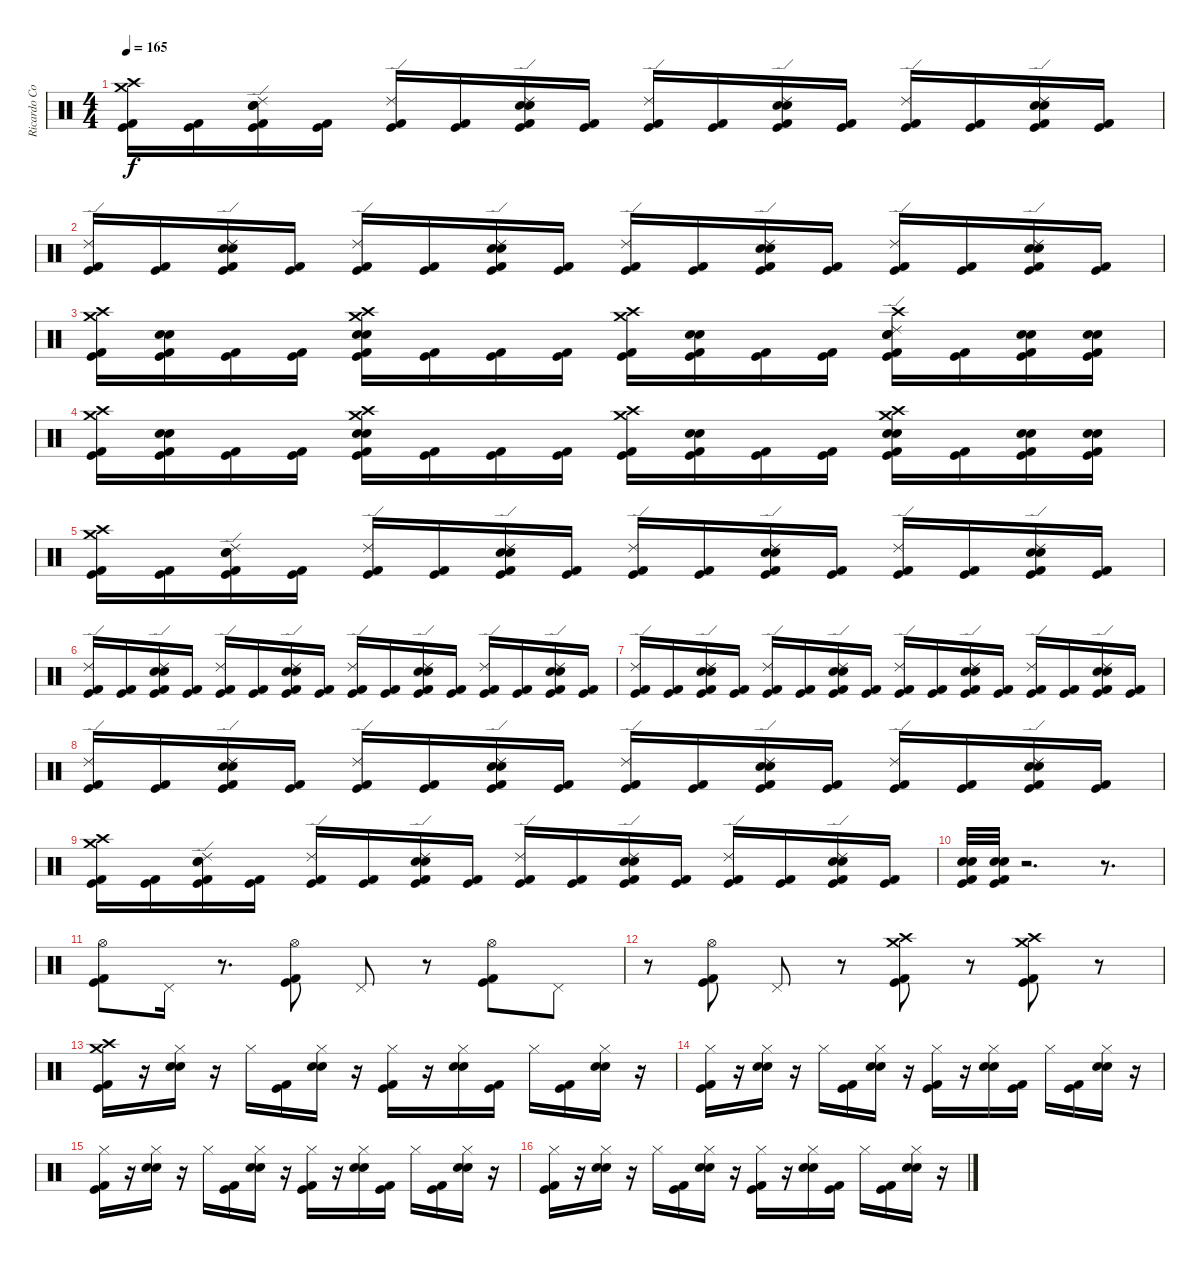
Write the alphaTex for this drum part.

\track ("Ricardo Confessori" "Ricardo Co") {instrument percussion}
\staff {score}
\articulation defaults
\ts (4 4)
\tempo 165
\clef neutral
\ks c
("Crash high (hit)" "Crash medium (hit)" "Kick (hit) 2" "Kick (hit)").16{dy f} ("Kick (hit) 2" "Kick (hit)").16 ("Ride (edge) 2" "Snare (hit) 2" "Electric Snare (hit)" "Kick (hit) 2" "Kick (hit)").16 ("Kick (hit) 2" "Kick (hit)").16 ("Ride (edge) 2" "Kick (hit) 2" "Kick (hit)").16 ("Kick (hit) 2" "Kick (hit)").16 ("Ride (edge) 2" "Electric Snare (hit)" "Snare (hit) 2" "Kick (hit) 2" "Kick (hit)").16 ("Kick (hit) 2" "Kick (hit)").16 ("Ride (edge) 2" "Kick (hit) 2" "Kick (hit)").16 ("Kick (hit) 2" "Kick (hit)").16 ("Ride (edge) 2" "Snare (hit) 2" "Electric Snare (hit)" "Kick (hit) 2" "Kick (hit)").16 ("Kick (hit) 2" "Kick (hit)").16 ("Ride (edge) 2" "Kick (hit) 2" "Kick (hit)").16 ("Kick (hit) 2" "Kick (hit)").16 ("Ride (edge) 2" "Electric Snare (hit)" "Snare (hit) 2" "Kick (hit) 2" "Kick (hit)").16 ("Kick (hit) 2" "Kick (hit)").16 |
("Ride (edge) 2" "Kick (hit) 2" "Kick (hit)").16 ("Kick (hit) 2" "Kick (hit)").16 ("Ride (edge) 2" "Snare (hit) 2" "Electric Snare (hit)" "Kick (hit) 2" "Kick (hit)").16 ("Kick (hit) 2" "Kick (hit)").16 ("Ride (edge) 2" "Kick (hit) 2" "Kick (hit)").16 ("Kick (hit) 2" "Kick (hit)").16 ("Ride (edge) 2" "Electric Snare (hit)" "Snare (hit) 2" "Kick (hit) 2" "Kick (hit)").16 ("Kick (hit) 2" "Kick (hit)").16 ("Ride (edge) 2" "Kick (hit) 2" "Kick (hit)").16 ("Kick (hit) 2" "Kick (hit)").16 ("Ride (edge) 2" "Snare (hit) 2" "Electric Snare (hit)" "Kick (hit) 2" "Kick (hit)").16 ("Kick (hit) 2" "Kick (hit)").16 ("Ride (edge) 2" "Kick (hit) 2" "Kick (hit)").16 ("Kick (hit) 2" "Kick (hit)").16 ("Ride (edge) 2" "Electric Snare (hit)" "Snare (hit) 2" "Kick (hit) 2" "Kick (hit)").16 ("Kick (hit) 2" "Kick (hit)").16 |
("Crash high (hit)" "Crash medium (hit)" "Kick (hit) 2" "Kick (hit)").16 ("Electric Snare (hit)" "Snare (hit) 2" "Kick (hit) 2" "Kick (hit)").16 ("Kick (hit) 2" "Kick (hit)").16 ("Kick (hit) 2" "Kick (hit)").16 ("Electric Snare (hit)" "Snare (hit) 2" "Crash high (hit)" "Crash medium (hit)" "Kick (hit) 2" "Kick (hit)").16 ("Kick (hit) 2" "Kick (hit)").16 ("Kick (hit) 2" "Kick (hit)").16 ("Kick (hit) 2" "Kick (hit)").16 ("Crash high (hit)" "Crash medium (hit)" "Kick (hit) 2" "Kick (hit)").16 ("Electric Snare (hit)" "Snare (hit) 2" "Kick (hit) 2" "Kick (hit)").16 ("Kick (hit) 2" "Kick (hit)").16 ("Kick (hit) 2" "Kick (hit)").16 ("Electric Snare (hit)" "Crash high (hit)" "Snare (hit) 2" "Ride (edge) 2" "Kick (hit) 2" "Kick (hit)").16 ("Kick (hit) 2" "Kick (hit)").16 ("Electric Snare (hit)" "Snare (hit) 2" "Kick (hit) 2" "Kick (hit)").16 ("Electric Snare (hit)" "Snare (hit) 2" "Kick (hit) 2" "Kick (hit)").16 |
("Crash high (hit)" "Crash medium (hit)" "Kick (hit) 2" "Kick (hit)").16 ("Electric Snare (hit)" "Snare (hit) 2" "Kick (hit) 2" "Kick (hit)").16 ("Kick (hit) 2" "Kick (hit)").16 ("Kick (hit) 2" "Kick (hit)").16 ("Crash high (hit)" "Electric Snare (hit)" "Snare (hit) 2" "Crash medium (hit)" "Kick (hit) 2" "Kick (hit)").16 ("Kick (hit) 2" "Kick (hit)").16 ("Kick (hit) 2" "Kick (hit)").16 ("Kick (hit) 2" "Kick (hit)").16 ("Crash high (hit)" "Crash medium (hit)" "Kick (hit) 2" "Kick (hit)").16 ("Electric Snare (hit)" "Snare (hit) 2" "Kick (hit) 2" "Kick (hit)").16 ("Kick (hit) 2" "Kick (hit)").16 ("Kick (hit) 2" "Kick (hit)").16 ("Electric Snare (hit)" "Snare (hit) 2" "Crash high (hit)" "Crash medium (hit)" "Kick (hit) 2" "Kick (hit)").16 ("Kick (hit) 2" "Kick (hit)").16 ("Electric Snare (hit)" "Snare (hit) 2" "Kick (hit) 2" "Kick (hit)").16 ("Electric Snare (hit)" "Snare (hit) 2" "Kick (hit) 2" "Kick (hit)").16 |
("Crash high (hit)" "Crash medium (hit)" "Kick (hit) 2" "Kick (hit)").16 ("Kick (hit) 2" "Kick (hit)").16 ("Ride (edge) 2" "Snare (hit) 2" "Electric Snare (hit)" "Kick (hit) 2" "Kick (hit)").16 ("Kick (hit) 2" "Kick (hit)").16 ("Ride (edge) 2" "Kick (hit) 2" "Kick (hit)").16 ("Kick (hit) 2" "Kick (hit)").16 ("Ride (edge) 2" "Electric Snare (hit)" "Snare (hit) 2" "Kick (hit) 2" "Kick (hit)").16 ("Kick (hit) 2" "Kick (hit)").16 ("Ride (edge) 2" "Kick (hit) 2" "Kick (hit)").16 ("Kick (hit) 2" "Kick (hit)").16 ("Ride (edge) 2" "Snare (hit) 2" "Electric Snare (hit)" "Kick (hit) 2" "Kick (hit)").16 ("Kick (hit) 2" "Kick (hit)").16 ("Ride (edge) 2" "Kick (hit) 2" "Kick (hit)").16 ("Kick (hit) 2" "Kick (hit)").16 ("Ride (edge) 2" "Electric Snare (hit)" "Snare (hit) 2" "Kick (hit) 2" "Kick (hit)").16 ("Kick (hit) 2" "Kick (hit)").16 |
("Ride (edge) 2" "Kick (hit) 2" "Kick (hit)").16 ("Kick (hit) 2" "Kick (hit)").16 ("Ride (edge) 2" "Snare (hit) 2" "Electric Snare (hit)" "Kick (hit) 2" "Kick (hit)").16 ("Kick (hit) 2" "Kick (hit)").16 ("Ride (edge) 2" "Kick (hit) 2" "Kick (hit)").16 ("Kick (hit) 2" "Kick (hit)").16 ("Ride (edge) 2" "Electric Snare (hit)" "Snare (hit) 2" "Kick (hit) 2" "Kick (hit)").16 ("Kick (hit) 2" "Kick (hit)").16 ("Ride (edge) 2" "Kick (hit) 2" "Kick (hit)").16 ("Kick (hit) 2" "Kick (hit)").16 ("Ride (edge) 2" "Snare (hit) 2" "Electric Snare (hit)" "Kick (hit) 2" "Kick (hit)").16 ("Kick (hit) 2" "Kick (hit)").16 ("Ride (edge) 2" "Kick (hit) 2" "Kick (hit)").16 ("Kick (hit) 2" "Kick (hit)").16 ("Ride (edge) 2" "Electric Snare (hit)" "Snare (hit) 2" "Kick (hit) 2" "Kick (hit)").16 ("Kick (hit) 2" "Kick (hit)").16 |
("Ride (edge) 2" "Kick (hit) 2" "Kick (hit)").16 ("Kick (hit) 2" "Kick (hit)").16 ("Ride (edge) 2" "Snare (hit) 2" "Electric Snare (hit)" "Kick (hit) 2" "Kick (hit)").16 ("Kick (hit) 2" "Kick (hit)").16 ("Ride (edge) 2" "Kick (hit) 2" "Kick (hit)").16 ("Kick (hit) 2" "Kick (hit)").16 ("Ride (edge) 2" "Electric Snare (hit)" "Snare (hit) 2" "Kick (hit) 2" "Kick (hit)").16 ("Kick (hit) 2" "Kick (hit)").16 ("Ride (edge) 2" "Kick (hit) 2" "Kick (hit)").16 ("Kick (hit) 2" "Kick (hit)").16 ("Ride (edge) 2" "Snare (hit) 2" "Electric Snare (hit)" "Kick (hit) 2" "Kick (hit)").16 ("Kick (hit) 2" "Kick (hit)").16 ("Ride (edge) 2" "Kick (hit) 2" "Kick (hit)").16 ("Kick (hit) 2" "Kick (hit)").16 ("Ride (edge) 2" "Electric Snare (hit)" "Snare (hit) 2" "Kick (hit) 2" "Kick (hit)").16 ("Kick (hit) 2" "Kick (hit)").16 |
("Ride (edge) 2" "Kick (hit) 2" "Kick (hit)").16 ("Kick (hit) 2" "Kick (hit)").16 ("Ride (edge) 2" "Snare (hit) 2" "Electric Snare (hit)" "Kick (hit) 2" "Kick (hit)").16 ("Kick (hit) 2" "Kick (hit)").16 ("Ride (edge) 2" "Kick (hit) 2" "Kick (hit)").16 ("Kick (hit) 2" "Kick (hit)").16 ("Ride (edge) 2" "Electric Snare (hit)" "Snare (hit) 2" "Kick (hit) 2" "Kick (hit)").16 ("Kick (hit) 2" "Kick (hit)").16 ("Ride (edge) 2" "Kick (hit) 2" "Kick (hit)").16 ("Kick (hit) 2" "Kick (hit)").16 ("Ride (edge) 2" "Snare (hit) 2" "Electric Snare (hit)" "Kick (hit) 2" "Kick (hit)").16 ("Kick (hit) 2" "Kick (hit)").16 ("Ride (edge) 2" "Kick (hit) 2" "Kick (hit)").16 ("Kick (hit) 2" "Kick (hit)").16 ("Ride (edge) 2" "Electric Snare (hit)" "Snare (hit) 2" "Kick (hit) 2" "Kick (hit)").16 ("Kick (hit) 2" "Kick (hit)").16 |
("Crash high (hit)" "Crash medium (hit)" "Kick (hit) 2" "Kick (hit)").16 ("Kick (hit) 2" "Kick (hit)").16 ("Ride (edge) 2" "Snare (hit) 2" "Electric Snare (hit)" "Kick (hit) 2" "Kick (hit)").16 ("Kick (hit) 2" "Kick (hit)").16 ("Ride (edge) 2" "Kick (hit) 2" "Kick (hit)").16 ("Kick (hit) 2" "Kick (hit)").16 ("Ride (edge) 2" "Electric Snare (hit)" "Snare (hit) 2" "Kick (hit) 2" "Kick (hit)").16 ("Kick (hit) 2" "Kick (hit)").16 ("Ride (edge) 2" "Kick (hit) 2" "Kick (hit)").16 ("Kick (hit) 2" "Kick (hit)").16 ("Ride (edge) 2" "Snare (hit) 2" "Electric Snare (hit)" "Kick (hit) 2" "Kick (hit)").16 ("Kick (hit) 2" "Kick (hit)").16 ("Ride (edge) 2" "Kick (hit) 2" "Kick (hit)").16 ("Kick (hit) 2" "Kick (hit)").16 ("Ride (edge) 2" "Electric Snare (hit)" "Snare (hit) 2" "Kick (hit) 2" "Kick (hit)").16 ("Kick (hit) 2" "Kick (hit)").16 |
("Electric Snare (hit)" "Kick (hit) 2" "Kick (hit)" "Snare (hit) 2").32 ("Electric Snare (hit)" "Kick (hit) 2" "Kick (hit)" "Snare (hit) 2").32 r.2{d} r.8{d} |
("Kick (hit) 2" "Kick (hit)" "Hi-Hat (open)").8 "Pedal Hi-Hat (hit)".16 r.8{d} ("Kick (hit) 2" "Kick (hit)" "Hi-Hat (open)").8 "Pedal Hi-Hat (hit)".8 r.8 ("Kick (hit)" "Hi-Hat (open)" "Kick (hit) 2").8 "Pedal Hi-Hat (hit)".8 |
r.8 ("Hi-Hat (open)" "Kick (hit)" "Kick (hit) 2").8 "Pedal Hi-Hat (hit)".8 r.8 ("Crash high (hit)" "Crash medium (hit)" "Kick (hit)" "Kick (hit) 2").8 r.8 ("Crash high (hit)" "Crash medium (hit)" "Kick (hit) 2" "Kick (hit)").8 r.8 |
("Crash medium (hit)" "Crash high (hit)" "Kick (hit) 2" "Kick (hit)").16 r.16 ("Hi-Hat (closed)" "Electric Snare (hit)" "Snare (hit) 2").16 r.16 "Hi-Hat (closed)".16 ("Kick (hit) 2" "Kick (hit)").16 ("Hi-Hat (closed)" "Electric Snare (hit)" "Snare (hit) 2").16 r.16 ("Hi-Hat (closed)" "Kick (hit) 2" "Kick (hit)").16 r.16 ("Hi-Hat (closed)" "Electric Snare (hit)" "Snare (hit) 2").16 ("Kick (hit) 2" "Kick (hit)").16 "Hi-Hat (closed)".16 ("Kick (hit) 2" "Kick (hit)").16 ("Hi-Hat (closed)" "Electric Snare (hit)" "Snare (hit) 2").16 r.16 |
("Hi-Hat (closed)" "Kick (hit) 2" "Kick (hit)").16 r.16 ("Hi-Hat (closed)" "Electric Snare (hit)" "Snare (hit) 2").16 r.16 "Hi-Hat (closed)".16 ("Kick (hit) 2" "Kick (hit)").16 ("Hi-Hat (closed)" "Electric Snare (hit)" "Snare (hit) 2").16 r.16 ("Hi-Hat (closed)" "Kick (hit) 2" "Kick (hit)").16 r.16 ("Hi-Hat (closed)" "Electric Snare (hit)" "Snare (hit) 2").16 ("Kick (hit) 2" "Kick (hit)").16 "Hi-Hat (closed)".16 ("Kick (hit) 2" "Kick (hit)").16 ("Hi-Hat (closed)" "Electric Snare (hit)" "Snare (hit) 2").16 r.16 |
("Hi-Hat (closed)" "Kick (hit) 2" "Kick (hit)").16 r.16 ("Hi-Hat (closed)" "Electric Snare (hit)" "Snare (hit) 2").16 r.16 "Hi-Hat (closed)".16 ("Kick (hit) 2" "Kick (hit)").16 ("Hi-Hat (closed)" "Electric Snare (hit)" "Snare (hit) 2").16 r.16 ("Hi-Hat (closed)" "Kick (hit) 2" "Kick (hit)").16 r.16 ("Hi-Hat (closed)" "Electric Snare (hit)" "Snare (hit) 2").16 ("Kick (hit) 2" "Kick (hit)").16 "Hi-Hat (closed)".16 ("Kick (hit) 2" "Kick (hit)").16 ("Hi-Hat (closed)" "Electric Snare (hit)" "Snare (hit) 2").16 r.16 |
("Hi-Hat (closed)" "Kick (hit) 2" "Kick (hit)").16 r.16 ("Hi-Hat (closed)" "Electric Snare (hit)" "Snare (hit) 2").16 r.16 "Hi-Hat (closed)".16 ("Kick (hit) 2" "Kick (hit)").16 ("Hi-Hat (closed)" "Electric Snare (hit)" "Snare (hit) 2").16 r.16 ("Hi-Hat (closed)" "Kick (hit) 2" "Kick (hit)").16 r.16 ("Hi-Hat (closed)" "Electric Snare (hit)" "Snare (hit) 2").16 ("Kick (hit) 2" "Kick (hit)").16 "Hi-Hat (closed)".16 ("Kick (hit) 2" "Kick (hit)").16 ("Hi-Hat (closed)" "Electric Snare (hit)" "Snare (hit) 2").16 r.16
